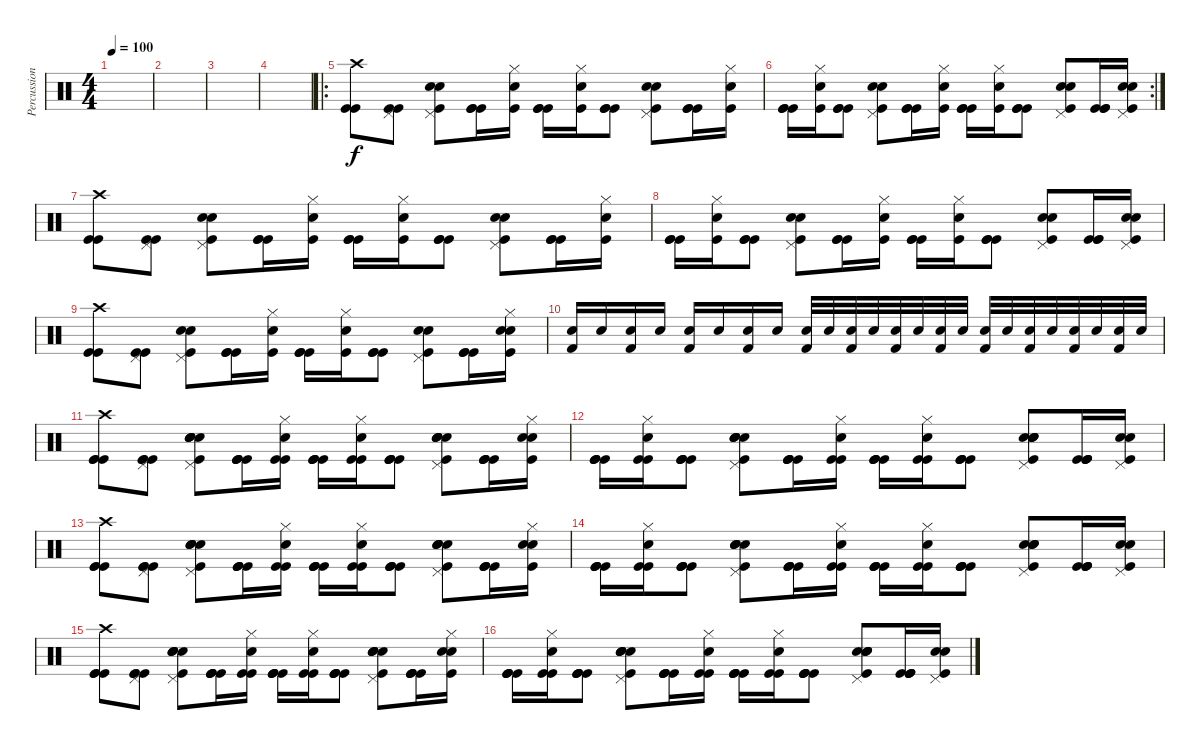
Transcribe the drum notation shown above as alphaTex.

\track ("Percussions" "Percussion") {instrument percussion}
\staff {score}
\articulation defaults
\ts (4 4)
\tempo 100
\clef neutral
\ks c
|
|
|
|
\ro
("Kick (hit)" "Crash high (hit)" "Kick (hit)").8 ("Kick (hit)" "Pedal Hi-Hat (hit)" "Kick (hit)").8 ("Electric Snare (hit)" "Snare (hit) 2" "Pedal Hi-Hat (hit)" "Kick (hit)").8 ("Kick (hit)" "Kick (hit)" "Kick (hit)").16 ("Snare (hit) 2" "Hi-Hat (closed)" "Kick (hit)").16 ("Kick (hit)" "Kick (hit)" "Kick (hit)").16 ("Snare (hit) 2" "Hi-Hat (closed)" "Kick (hit)").16 ("Kick (hit)" "Kick (hit)" "Kick (hit)").8 ("Electric Snare (hit)" "Snare (hit) 2" "Pedal Hi-Hat (hit)" "Kick (hit)").8 ("Kick (hit)" "Kick (hit)" "Kick (hit)").16 ("Snare (hit) 2" "Hi-Hat (closed)" "Kick (hit)").16 |
\rc 2
("Kick (hit)" "Kick (hit)" "Kick (hit)").16 ("Snare (hit) 2" "Hi-Hat (closed)" "Kick (hit)").16 ("Kick (hit)" "Kick (hit)" "Kick (hit)").8 ("Electric Snare (hit)" "Snare (hit) 2" "Pedal Hi-Hat (hit)" "Kick (hit)").8 ("Kick (hit)" "Kick (hit)" "Kick (hit)").16 ("Snare (hit) 2" "Hi-Hat (closed)" "Kick (hit)").16 ("Kick (hit)" "Kick (hit)" "Kick (hit)").16 ("Snare (hit) 2" "Hi-Hat (closed)" "Kick (hit)").16 ("Kick (hit)" "Kick (hit)" "Kick (hit)").8 ("Electric Snare (hit)" "Snare (hit) 2" "Pedal Hi-Hat (hit)" "Kick (hit)").8 ("Kick (hit)" "Kick (hit)" "Kick (hit)").16 ("Electric Snare (hit)" "Snare (hit) 2" "Pedal Hi-Hat (hit)" "Kick (hit)").16 |
("Kick (hit)" "Crash high (hit)" "Kick (hit)").8 ("Kick (hit)" "Pedal Hi-Hat (hit)" "Kick (hit)").8 ("Electric Snare (hit)" "Snare (hit) 2" "Pedal Hi-Hat (hit)" "Kick (hit)").8 ("Kick (hit)" "Kick (hit)" "Kick (hit)").16 ("Snare (hit) 2" "Hi-Hat (closed)" "Kick (hit)").16 ("Kick (hit)" "Kick (hit)" "Kick (hit)").16 ("Snare (hit) 2" "Hi-Hat (closed)" "Kick (hit)").16 ("Kick (hit)" "Kick (hit)" "Kick (hit)").8 ("Electric Snare (hit)" "Snare (hit) 2" "Pedal Hi-Hat (hit)" "Kick (hit)").8 ("Kick (hit)" "Kick (hit)" "Kick (hit)").16 ("Snare (hit) 2" "Hi-Hat (closed)" "Kick (hit)").16 |
("Kick (hit)" "Kick (hit)" "Kick (hit)").16 ("Snare (hit) 2" "Hi-Hat (closed)" "Kick (hit)").16 ("Kick (hit)" "Kick (hit)" "Kick (hit)").8 ("Electric Snare (hit)" "Snare (hit) 2" "Pedal Hi-Hat (hit)" "Kick (hit)").8 ("Kick (hit)" "Kick (hit)" "Kick (hit)").16 ("Snare (hit) 2" "Hi-Hat (closed)" "Kick (hit)").16 ("Kick (hit)" "Kick (hit)" "Kick (hit)").16 ("Snare (hit) 2" "Hi-Hat (closed)" "Kick (hit)").16 ("Kick (hit)" "Kick (hit)" "Kick (hit)").8 ("Electric Snare (hit)" "Snare (hit) 2" "Pedal Hi-Hat (hit)" "Kick (hit)").8 ("Kick (hit)" "Kick (hit)" "Kick (hit)").16 ("Electric Snare (hit)" "Snare (hit) 2" "Pedal Hi-Hat (hit)" "Kick (hit)").16 |
("Kick (hit)" "Crash high (hit)" "Kick (hit)").8 ("Kick (hit)" "Pedal Hi-Hat (hit)" "Kick (hit)").8 ("Electric Snare (hit)" "Snare (hit) 2" "Pedal Hi-Hat (hit)" "Kick (hit)").8 ("Kick (hit)" "Kick (hit)" "Kick (hit)").16 ("Snare (hit) 2" "Hi-Hat (closed)" "Kick (hit)").16 ("Kick (hit)" "Kick (hit)" "Kick (hit)").16 ("Snare (hit) 2" "Hi-Hat (closed)" "Kick (hit)").16 ("Kick (hit)" "Kick (hit)" "Kick (hit)").8 ("Electric Snare (hit)" "Snare (hit) 2" "Pedal Hi-Hat (hit)" "Kick (hit)").8 ("Kick (hit)" "Kick (hit)" "Kick (hit)").16 ("Electric Snare (hit)" "Snare (hit) 2" "Hi-Hat (closed)" "Kick (hit)").16 |
("Electric Snare (hit)" "Kick (hit) 2").16 "Electric Snare (hit)".16 ("Electric Snare (hit)" "Kick (hit) 2").16 "Electric Snare (hit)".16 ("Electric Snare (hit)" "Kick (hit) 2").16 "Electric Snare (hit)".16 ("Electric Snare (hit)" "Kick (hit) 2").16 "Electric Snare (hit)".16 ("Electric Snare (hit)" "Kick (hit) 2").32 "Electric Snare (hit)".32 ("Electric Snare (hit)" "Kick (hit) 2").32 "Electric Snare (hit)".32 ("Electric Snare (hit)" "Kick (hit) 2").32 "Electric Snare (hit)".32 ("Electric Snare (hit)" "Kick (hit) 2").32 "Electric Snare (hit)".32 ("Electric Snare (hit)" "Kick (hit) 2").32 "Electric Snare (hit)".32 ("Electric Snare (hit)" "Kick (hit) 2").32 "Electric Snare (hit)".32 ("Electric Snare (hit)" "Kick (hit) 2").32 "Electric Snare (hit)".32 ("Electric Snare (hit)" "Kick (hit) 2").32 "Electric Snare (hit)".32 |
("Kick (hit)" "Kick (hit)" "Crash high (hit)" "Kick (hit)").8 ("Kick (hit)" "Kick (hit)" "Pedal Hi-Hat (hit)" "Kick (hit)").8 ("Electric Snare (hit)" "Snare (hit) 2" "Electric Snare (hit)" "Snare (hit) 2" "Pedal Hi-Hat (hit)" "Kick (hit)").8 ("Kick (hit)" "Kick (hit)" "Kick (hit)" "Kick (hit)").16 ("Snare (hit) 2" "Kick (hit)" "Hi-Hat (closed)" "Kick (hit)").16 ("Kick (hit)" "Kick (hit)" "Kick (hit)" "Kick (hit)").16 ("Snare (hit) 2" "Kick (hit)" "Hi-Hat (closed)" "Kick (hit)").16 ("Kick (hit)" "Kick (hit)" "Kick (hit)" "Kick (hit)").8 ("Electric Snare (hit)" "Snare (hit) 2" "Electric Snare (hit)" "Snare (hit) 2" "Pedal Hi-Hat (hit)" "Kick (hit)").8 ("Kick (hit)" "Kick (hit)" "Kick (hit)" "Kick (hit)").16 ("Electric Snare (hit)" "Snare (hit) 2" "Hi-Hat (closed)" "Kick (hit)").16 |
("Kick (hit)" "Kick (hit)" "Kick (hit)" "Kick (hit)").16 ("Snare (hit) 2" "Kick (hit)" "Hi-Hat (closed)" "Kick (hit)").16 ("Kick (hit)" "Kick (hit)" "Kick (hit)" "Kick (hit)").8 ("Electric Snare (hit)" "Snare (hit) 2" "Electric Snare (hit)" "Snare (hit) 2" "Pedal Hi-Hat (hit)" "Kick (hit)").8 ("Kick (hit)" "Kick (hit)" "Kick (hit)" "Kick (hit)").16 ("Snare (hit) 2" "Kick (hit)" "Hi-Hat (closed)" "Kick (hit)").16 ("Kick (hit)" "Kick (hit)" "Kick (hit)" "Kick (hit)").16 ("Snare (hit) 2" "Kick (hit)" "Hi-Hat (closed)" "Kick (hit)").16 ("Kick (hit)" "Kick (hit)" "Kick (hit)" "Kick (hit)").8 ("Electric Snare (hit)" "Snare (hit) 2" "Electric Snare (hit)" "Snare (hit) 2" "Pedal Hi-Hat (hit)" "Kick (hit)").8 ("Kick (hit)" "Kick (hit)" "Kick (hit)" "Kick (hit)").16 ("Electric Snare (hit)" "Snare (hit) 2" "Pedal Hi-Hat (hit)" "Kick (hit)").16 |
("Kick (hit)" "Kick (hit)" "Crash high (hit)" "Kick (hit)").8 ("Kick (hit)" "Kick (hit)" "Pedal Hi-Hat (hit)" "Kick (hit)").8 ("Electric Snare (hit)" "Snare (hit) 2" "Electric Snare (hit)" "Snare (hit) 2" "Pedal Hi-Hat (hit)" "Kick (hit)").8 ("Kick (hit)" "Kick (hit)" "Kick (hit)" "Kick (hit)").16 ("Snare (hit) 2" "Kick (hit)" "Hi-Hat (closed)" "Kick (hit)").16 ("Kick (hit)" "Kick (hit)" "Kick (hit)" "Kick (hit)").16 ("Snare (hit) 2" "Kick (hit)" "Hi-Hat (closed)" "Kick (hit)").16 ("Kick (hit)" "Kick (hit)" "Kick (hit)" "Kick (hit)").8 ("Electric Snare (hit)" "Snare (hit) 2" "Electric Snare (hit)" "Snare (hit) 2" "Pedal Hi-Hat (hit)" "Kick (hit)").8 ("Kick (hit)" "Kick (hit)" "Kick (hit)" "Kick (hit)").16 ("Electric Snare (hit)" "Snare (hit) 2" "Hi-Hat (closed)" "Kick (hit)").16 |
("Kick (hit)" "Kick (hit)" "Kick (hit)" "Kick (hit)").16 ("Snare (hit) 2" "Kick (hit)" "Hi-Hat (closed)" "Kick (hit)").16 ("Kick (hit)" "Kick (hit)" "Kick (hit)" "Kick (hit)").8 ("Electric Snare (hit)" "Snare (hit) 2" "Electric Snare (hit)" "Snare (hit) 2" "Pedal Hi-Hat (hit)" "Kick (hit)").8 ("Kick (hit)" "Kick (hit)" "Kick (hit)" "Kick (hit)").16 ("Snare (hit) 2" "Kick (hit)" "Hi-Hat (closed)" "Kick (hit)").16 ("Kick (hit)" "Kick (hit)" "Kick (hit)" "Kick (hit)").16 ("Snare (hit) 2" "Kick (hit)" "Hi-Hat (closed)" "Kick (hit)").16 ("Kick (hit)" "Kick (hit)" "Kick (hit)" "Kick (hit)").8 ("Electric Snare (hit)" "Snare (hit) 2" "Electric Snare (hit)" "Snare (hit) 2" "Pedal Hi-Hat (hit)" "Kick (hit)").8 ("Kick (hit)" "Kick (hit)" "Kick (hit)" "Kick (hit)").16 ("Electric Snare (hit)" "Snare (hit) 2" "Pedal Hi-Hat (hit)" "Kick (hit)").16 |
("Kick (hit)" "Kick (hit)" "Crash high (hit)" "Kick (hit)").8 ("Kick (hit)" "Kick (hit)" "Pedal Hi-Hat (hit)" "Kick (hit)").8 ("Electric Snare (hit)" "Snare (hit) 2" "Electric Snare (hit)" "Snare (hit) 2" "Pedal Hi-Hat (hit)" "Kick (hit)").8 ("Kick (hit)" "Kick (hit)" "Kick (hit)" "Kick (hit)").16 ("Snare (hit) 2" "Kick (hit)" "Hi-Hat (closed)" "Kick (hit)").16 ("Kick (hit)" "Kick (hit)" "Kick (hit)" "Kick (hit)").16 ("Snare (hit) 2" "Kick (hit)" "Hi-Hat (closed)" "Kick (hit)").16 ("Kick (hit)" "Kick (hit)" "Kick (hit)" "Kick (hit)").8 ("Electric Snare (hit)" "Snare (hit) 2" "Electric Snare (hit)" "Snare (hit) 2" "Pedal Hi-Hat (hit)" "Kick (hit)").8 ("Kick (hit)" "Kick (hit)" "Kick (hit)" "Kick (hit)").16 ("Electric Snare (hit)" "Snare (hit) 2" "Hi-Hat (closed)" "Kick (hit)").16 |
("Kick (hit)" "Kick (hit)" "Kick (hit)" "Kick (hit)").16 ("Snare (hit) 2" "Kick (hit)" "Hi-Hat (closed)" "Kick (hit)").16 ("Kick (hit)" "Kick (hit)" "Kick (hit)" "Kick (hit)").8 ("Electric Snare (hit)" "Snare (hit) 2" "Electric Snare (hit)" "Snare (hit) 2" "Pedal Hi-Hat (hit)" "Kick (hit)").8 ("Kick (hit)" "Kick (hit)" "Kick (hit)" "Kick (hit)").16 ("Snare (hit) 2" "Kick (hit)" "Hi-Hat (closed)" "Kick (hit)").16 ("Kick (hit)" "Kick (hit)" "Kick (hit)" "Kick (hit)").16 ("Snare (hit) 2" "Kick (hit)" "Hi-Hat (closed)" "Kick (hit)").16 ("Kick (hit)" "Kick (hit)" "Kick (hit)" "Kick (hit)").8 ("Electric Snare (hit)" "Snare (hit) 2" "Electric Snare (hit)" "Snare (hit) 2" "Pedal Hi-Hat (hit)" "Kick (hit)").8 ("Kick (hit)" "Kick (hit)" "Kick (hit)" "Kick (hit)").16 ("Electric Snare (hit)" "Snare (hit) 2" "Pedal Hi-Hat (hit)" "Kick (hit)").16
